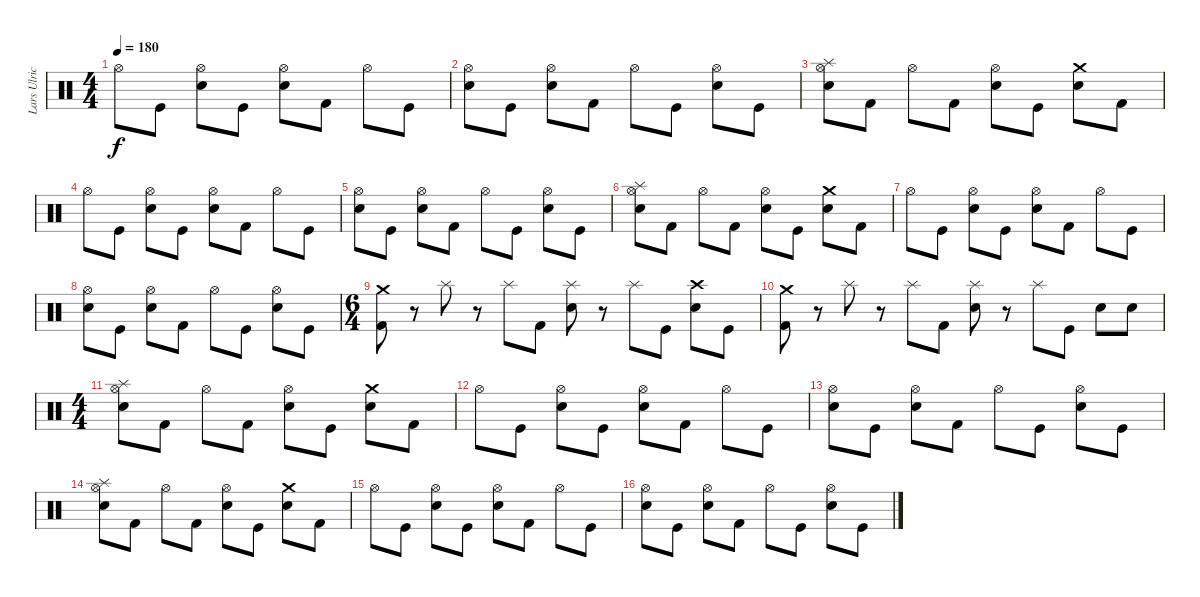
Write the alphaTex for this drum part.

\track ("Lars Ulrich" "Lars Ulric") {instrument percussion}
\staff {score}
\articulation defaults
\ts (4 4)
\tempo 180
\clef neutral
\ks c "Hi-Hat (open)".8{dy f} "Kick (hit)".8
("Hi-Hat (open)" "Electric Snare (hit)").8 "Kick (hit)".8 ("Hi-Hat (open)" "Electric Snare (hit)").8 "Kick (hit) 2".8 "Hi-Hat (open)".8 "Kick (hit)".8 |
("Hi-Hat (open)" "Electric Snare (hit)").8 "Kick (hit)".8 ("Hi-Hat (open)" "Electric Snare (hit)").8 "Kick (hit) 2".8 "Hi-Hat (open)".8 "Kick (hit)".8 ("Hi-Hat (open)" "Electric Snare (hit)").8 "Kick (hit)".8 |
("Splash (hit)" "Hi-Hat (open)" "Electric Snare (hit)").8 "Kick (hit) 2".8 "Hi-Hat (open)".8 "Kick (hit) 2".8 ("Hi-Hat (open)" "Electric Snare (hit)").8 "Kick (hit)".8 ("Crash medium (hit)" "Electric Snare (hit)").8 "Kick (hit) 2".8 |
"Hi-Hat (open)".8 "Kick (hit)".8 ("Hi-Hat (open)" "Electric Snare (hit)").8 "Kick (hit)".8 ("Hi-Hat (open)" "Electric Snare (hit)").8 "Kick (hit) 2".8 "Hi-Hat (open)".8 "Kick (hit)".8 |
("Hi-Hat (open)" "Electric Snare (hit)").8 "Kick (hit)".8 ("Hi-Hat (open)" "Electric Snare (hit)").8 "Kick (hit) 2".8 "Hi-Hat (open)".8 "Kick (hit)".8 ("Hi-Hat (open)" "Electric Snare (hit)").8 "Kick (hit)".8 |
("Splash (hit)" "Hi-Hat (open)" "Electric Snare (hit)").8 "Kick (hit) 2".8 "Hi-Hat (open)".8 "Kick (hit) 2".8 ("Hi-Hat (open)" "Electric Snare (hit)").8 "Kick (hit)".8 ("Crash medium (hit)" "Electric Snare (hit)").8 "Kick (hit) 2".8 |
"Hi-Hat (open)".8 "Kick (hit)".8 ("Hi-Hat (open)" "Electric Snare (hit)").8 "Kick (hit)".8 ("Hi-Hat (open)" "Electric Snare (hit)").8 "Kick (hit) 2".8 "Hi-Hat (open)".8 "Kick (hit)".8 |
("Hi-Hat (open)" "Electric Snare (hit)").8 "Kick (hit)".8 ("Hi-Hat (open)" "Electric Snare (hit)").8 "Kick (hit) 2".8 "Hi-Hat (open)".8 "Kick (hit)".8 ("Hi-Hat (open)" "Electric Snare (hit)").8 "Kick (hit)".8 |
\ts (6 4)
("Crash medium (hit)" "Kick (hit) 2").8 r.8 "Splash (hit)".8 r.8 "Splash (hit)".8 "Kick (hit) 2".8 ("Splash (hit)" "Electric Snare (hit)").8 r.8 "Splash (hit)".8 "Kick (hit)".8 ("Crash high (hit)" "Electric Snare (hit)").8 "Kick (hit)".8 |
("Crash medium (hit)" "Kick (hit) 2").8 r.8 "Splash (hit)".8 r.8 "Splash (hit)".8 "Kick (hit) 2".8 ("Splash (hit)" "Electric Snare (hit)").8 r.8 "Splash (hit)".8 "Kick (hit)".8 "Electric Snare (hit)".8 "Electric Snare (hit)".8 |
\ts (4 4)
("Splash (hit)" "Hi-Hat (open)" "Electric Snare (hit)").8 "Kick (hit) 2".8 "Hi-Hat (open)".8 "Kick (hit) 2".8 ("Hi-Hat (open)" "Electric Snare (hit)").8 "Kick (hit)".8 ("Crash medium (hit)" "Electric Snare (hit)").8 "Kick (hit) 2".8 |
"Hi-Hat (open)".8 "Kick (hit)".8 ("Hi-Hat (open)" "Electric Snare (hit)").8 "Kick (hit)".8 ("Hi-Hat (open)" "Electric Snare (hit)").8 "Kick (hit) 2".8 "Hi-Hat (open)".8 "Kick (hit)".8 |
("Hi-Hat (open)" "Electric Snare (hit)").8 "Kick (hit)".8 ("Hi-Hat (open)" "Electric Snare (hit)").8 "Kick (hit) 2".8 "Hi-Hat (open)".8 "Kick (hit)".8 ("Hi-Hat (open)" "Electric Snare (hit)").8 "Kick (hit)".8 |
("Splash (hit)" "Hi-Hat (open)" "Electric Snare (hit)").8 "Kick (hit) 2".8 "Hi-Hat (open)".8 "Kick (hit) 2".8 ("Hi-Hat (open)" "Electric Snare (hit)").8 "Kick (hit)".8 ("Crash medium (hit)" "Electric Snare (hit)").8 "Kick (hit) 2".8 |
"Hi-Hat (open)".8 "Kick (hit)".8 ("Hi-Hat (open)" "Electric Snare (hit)").8 "Kick (hit)".8 ("Hi-Hat (open)" "Electric Snare (hit)").8 "Kick (hit) 2".8 "Hi-Hat (open)".8 "Kick (hit)".8 |
("Hi-Hat (open)" "Electric Snare (hit)").8 "Kick (hit)".8 ("Hi-Hat (open)" "Electric Snare (hit)").8 "Kick (hit) 2".8 "Hi-Hat (open)".8 "Kick (hit)".8 ("Hi-Hat (open)" "Electric Snare (hit)").8 "Kick (hit)".8
